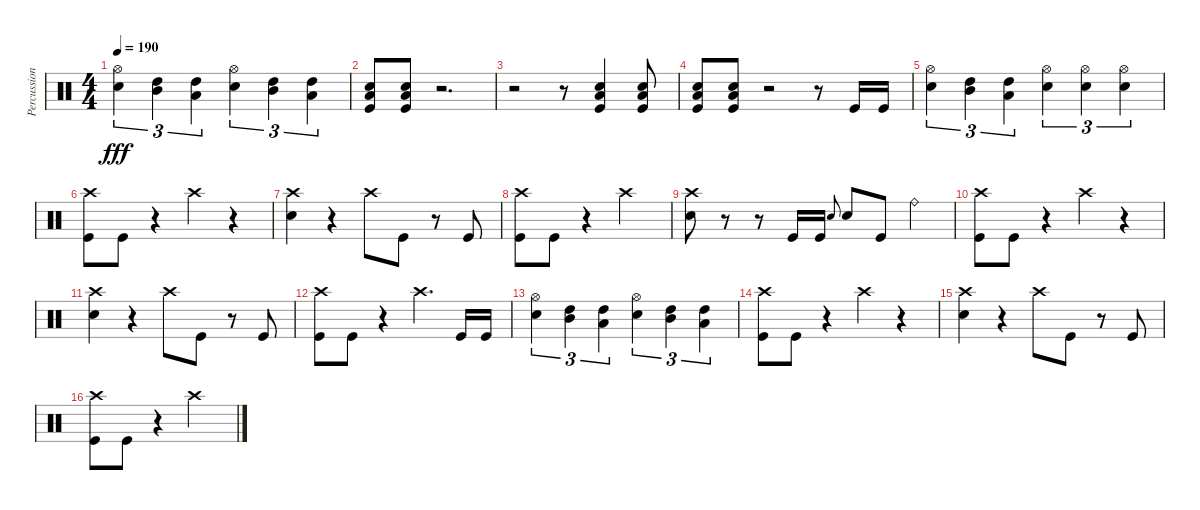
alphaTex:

\track ("Percussion" "Percussion") {instrument percussion}
\staff {score}
\articulation defaults
\ts (4 4)
\tempo 190
\clef neutral
\ks c
("Snare (hit) 2" "Hi-Hat (open)").4{tu (3 2) dy fff} ("Mid Tom (hit)" "High Tom (hit)").4{tu (3 2)} ("Low Tom (hit)" "High Tom (hit)").4{tu (3 2)} ("Snare (hit) 2" "Hi-Hat (open)").4{tu (3 2)} ("Mid Tom (hit)" "High Tom (hit)").4{tu (3 2)} ("Low Tom (hit)" "High Tom (hit)").4{tu (3 2)} |
("Low Tom (hit)" "Snare (hit) 2" "Kick (hit)").8 ("Low Tom (hit)" "Snare (hit) 2" "Kick (hit)").8 r.2{d} |
r.2 r.8 ("Kick (hit)" "Low Tom (hit)" "Snare (hit) 2").4 ("Snare (hit) 2" "Low Tom (hit)" "Kick (hit)").8 |
("Kick (hit)" "Low Tom (hit)" "Snare (hit) 2").8 ("Kick (hit)" "Low Tom (hit)" "Snare (hit) 2").8 r.2 r.8 "Kick (hit)".16 "Kick (hit)".16 |
("Snare (hit) 2" "Hi-Hat (open)").4{tu (3 2)} ("Mid Tom (hit)" "High Tom (hit)").4{tu (3 2)} ("Low Tom (hit)" "High Tom (hit)").4{tu (3 2)} ("Snare (hit) 2" "Hi-Hat (open)").4{tu (3 2)} ("Snare (hit) 2" "Hi-Hat (open)").4{tu (3 2)} ("Snare (hit) 2" "Hi-Hat (open)").4{tu (3 2)} |
("Crash high (hit)" "Kick (hit)").8 "Kick (hit)".8 r.4 "Crash high (hit)".4 r.4 |
("Crash high (hit)" "Snare (hit) 2").4 r.4 "Crash high (hit)".8 "Kick (hit)".8 r.8 "Kick (hit)".8 |
("Crash high (hit)" "Kick (hit)").8 "Kick (hit)".8 r.4 "Crash high (hit)".2 |
("Crash high (hit)" "Snare (hit) 2").8 r.8 r.8 "Kick (hit)".16 "Kick (hit)".16 "Snare (hit) 2".8{gr onbeat} "Snare (hit) 2".8 "Kick (hit)".8 "Ride (bell)".4 |
("Crash high (hit)" "Kick (hit)").8 "Kick (hit)".8 r.4 "Crash high (hit)".4 r.4 |
("Crash high (hit)" "Snare (hit) 2").4 r.4 "Crash high (hit)".8 "Kick (hit)".8 r.8 "Kick (hit)".8 |
("Crash high (hit)" "Kick (hit)").8 "Kick (hit)".8 r.4 "Crash high (hit)".4{d} "Kick (hit)".16 "Kick (hit)".16 |
("Snare (hit) 2" "Hi-Hat (open)").4{tu (3 2)} ("Mid Tom (hit)" "High Tom (hit)").4{tu (3 2)} ("Low Tom (hit)" "High Tom (hit)").4{tu (3 2)} ("Snare (hit) 2" "Hi-Hat (open)").4{tu (3 2)} ("Mid Tom (hit)" "High Tom (hit)").4{tu (3 2)} ("Low Tom (hit)" "High Tom (hit)").4{tu (3 2)} |
("Crash high (hit)" "Kick (hit)").8 "Kick (hit)".8 r.4 "Crash high (hit)".4 r.4 |
("Crash high (hit)" "Snare (hit) 2").4 r.4 "Crash high (hit)".8 "Kick (hit)".8 r.8 "Kick (hit)".8 |
("Crash high (hit)" "Kick (hit)").8 "Kick (hit)".8 r.4 "Crash high (hit)".2
